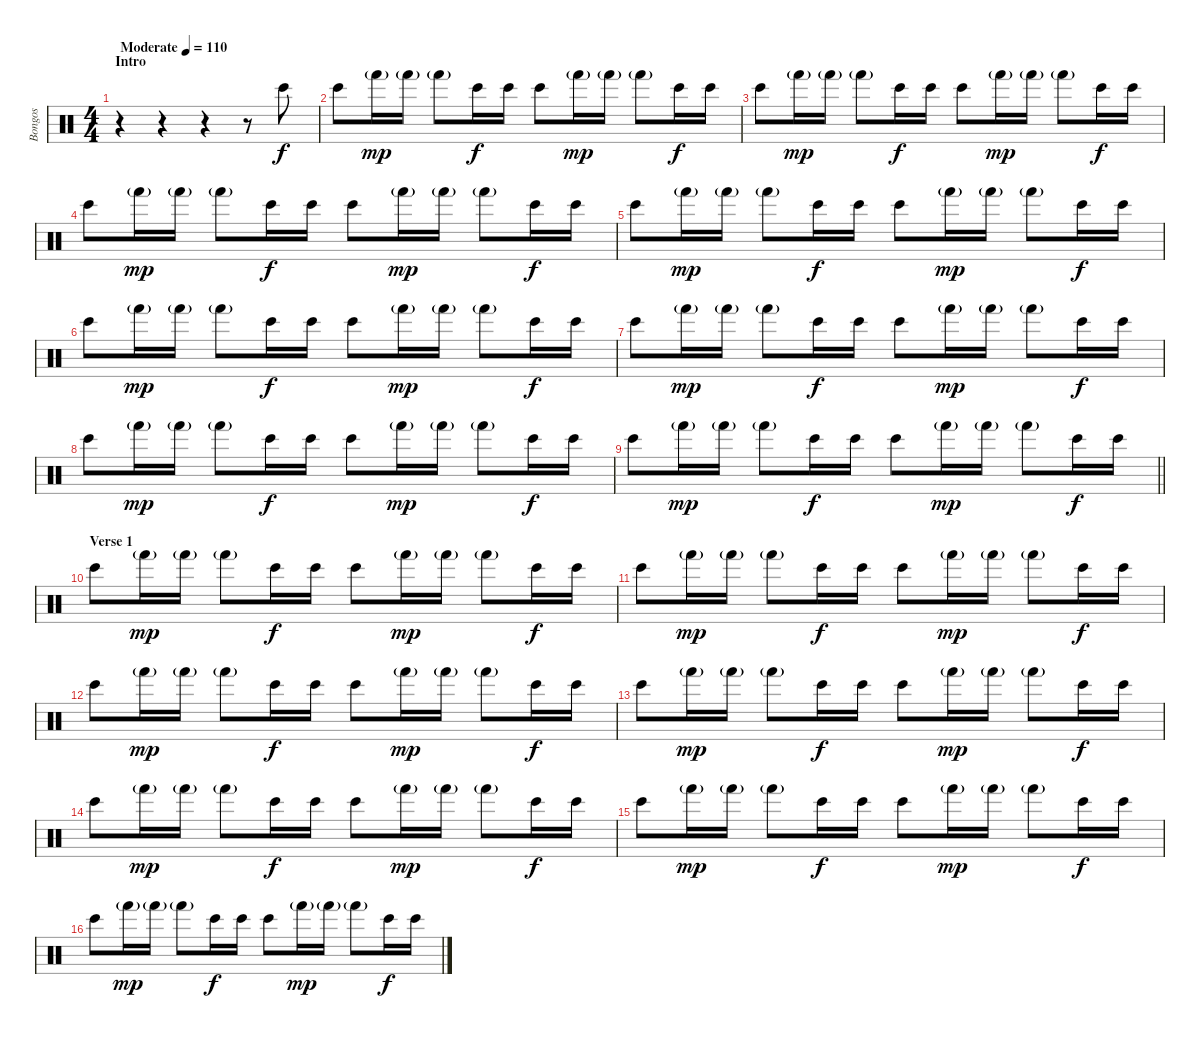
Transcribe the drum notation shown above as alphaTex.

\track ("Bongos" "Bongos") {instrument percussion}
\staff {score}
\articulation defaults
\ts (4 4)
\section ("" "Intro")
\tempo (110 "Moderate")
\clef neutral
\ks c
r.4{dy f} r.4 r.4 r.8 "Bongo High (hit)".8 |
"Bongo High (hit)".8 "Hand (hit)"{g}.16{dy mp} "Hand (hit)"{g}.16 "Hand (hit)"{g}.8 "Bongo High (hit)".16{dy f} "Bongo High (hit)".16 "Bongo High (hit)".8 "Hand (hit)"{g}.16{dy mp} "Hand (hit)"{g}.16 "Hand (hit)"{g}.8 "Bongo High (hit)".16{dy f} "Bongo High (hit)".16 |
"Bongo High (hit)".8 "Hand (hit)"{g}.16{dy mp} "Hand (hit)"{g}.16 "Hand (hit)"{g}.8 "Bongo High (hit)".16{dy f} "Bongo High (hit)".16 "Bongo High (hit)".8 "Hand (hit)"{g}.16{dy mp} "Hand (hit)"{g}.16 "Hand (hit)"{g}.8 "Bongo High (hit)".16{dy f} "Bongo High (hit)".16 |
"Bongo High (hit)".8 "Hand (hit)"{g}.16{dy mp} "Hand (hit)"{g}.16 "Hand (hit)"{g}.8 "Bongo High (hit)".16{dy f} "Bongo High (hit)".16 "Bongo High (hit)".8 "Hand (hit)"{g}.16{dy mp} "Hand (hit)"{g}.16 "Hand (hit)"{g}.8 "Bongo High (hit)".16{dy f} "Bongo High (hit)".16 |
"Bongo High (hit)".8 "Hand (hit)"{g}.16{dy mp} "Hand (hit)"{g}.16 "Hand (hit)"{g}.8 "Bongo High (hit)".16{dy f} "Bongo High (hit)".16 "Bongo High (hit)".8 "Hand (hit)"{g}.16{dy mp} "Hand (hit)"{g}.16 "Hand (hit)"{g}.8 "Bongo High (hit)".16{dy f} "Bongo High (hit)".16 |
"Bongo High (hit)".8 "Hand (hit)"{g}.16{dy mp} "Hand (hit)"{g}.16 "Hand (hit)"{g}.8 "Bongo High (hit)".16{dy f} "Bongo High (hit)".16 "Bongo High (hit)".8 "Hand (hit)"{g}.16{dy mp} "Hand (hit)"{g}.16 "Hand (hit)"{g}.8 "Bongo High (hit)".16{dy f} "Bongo High (hit)".16 |
"Bongo High (hit)".8 "Hand (hit)"{g}.16{dy mp} "Hand (hit)"{g}.16 "Hand (hit)"{g}.8 "Bongo High (hit)".16{dy f} "Bongo High (hit)".16 "Bongo High (hit)".8 "Hand (hit)"{g}.16{dy mp} "Hand (hit)"{g}.16 "Hand (hit)"{g}.8 "Bongo High (hit)".16{dy f} "Bongo High (hit)".16 |
"Bongo High (hit)".8 "Hand (hit)"{g}.16{dy mp} "Hand (hit)"{g}.16 "Hand (hit)"{g}.8 "Bongo High (hit)".16{dy f} "Bongo High (hit)".16 "Bongo High (hit)".8 "Hand (hit)"{g}.16{dy mp} "Hand (hit)"{g}.16 "Hand (hit)"{g}.8 "Bongo High (hit)".16{dy f} "Bongo High (hit)".16 |
\barLineRight lightlight "Bongo High (hit)".8 "Hand (hit)"{g}.16{dy mp} "Hand (hit)"{g}.16 "Hand (hit)"{g}.8 "Bongo High (hit)".16{dy f} "Bongo High (hit)".16 "Bongo High (hit)".8 "Hand (hit)"{g}.16{dy mp} "Hand (hit)"{g}.16 "Hand (hit)"{g}.8 "Bongo High (hit)".16{dy f} "Bongo High (hit)".16
|
\section ("" "Verse 1")
"Bongo High (hit)".8 "Hand (hit)"{g}.16{dy mp} "Hand (hit)"{g}.16 "Hand (hit)"{g}.8 "Bongo High (hit)".16{dy f} "Bongo High (hit)".16 "Bongo High (hit)".8 "Hand (hit)"{g}.16{dy mp} "Hand (hit)"{g}.16 "Hand (hit)"{g}.8 "Bongo High (hit)".16{dy f} "Bongo High (hit)".16 |
"Bongo High (hit)".8 "Hand (hit)"{g}.16{dy mp} "Hand (hit)"{g}.16 "Hand (hit)"{g}.8 "Bongo High (hit)".16{dy f} "Bongo High (hit)".16 "Bongo High (hit)".8 "Hand (hit)"{g}.16{dy mp} "Hand (hit)"{g}.16 "Hand (hit)"{g}.8 "Bongo High (hit)".16{dy f} "Bongo High (hit)".16 |
"Bongo High (hit)".8 "Hand (hit)"{g}.16{dy mp} "Hand (hit)"{g}.16 "Hand (hit)"{g}.8 "Bongo High (hit)".16{dy f} "Bongo High (hit)".16 "Bongo High (hit)".8 "Hand (hit)"{g}.16{dy mp} "Hand (hit)"{g}.16 "Hand (hit)"{g}.8 "Bongo High (hit)".16{dy f} "Bongo High (hit)".16 |
"Bongo High (hit)".8 "Hand (hit)"{g}.16{dy mp} "Hand (hit)"{g}.16 "Hand (hit)"{g}.8 "Bongo High (hit)".16{dy f} "Bongo High (hit)".16 "Bongo High (hit)".8 "Hand (hit)"{g}.16{dy mp} "Hand (hit)"{g}.16 "Hand (hit)"{g}.8 "Bongo High (hit)".16{dy f} "Bongo High (hit)".16 |
"Bongo High (hit)".8 "Hand (hit)"{g}.16{dy mp} "Hand (hit)"{g}.16 "Hand (hit)"{g}.8 "Bongo High (hit)".16{dy f} "Bongo High (hit)".16 "Bongo High (hit)".8 "Hand (hit)"{g}.16{dy mp} "Hand (hit)"{g}.16 "Hand (hit)"{g}.8 "Bongo High (hit)".16{dy f} "Bongo High (hit)".16 |
"Bongo High (hit)".8 "Hand (hit)"{g}.16{dy mp} "Hand (hit)"{g}.16 "Hand (hit)"{g}.8 "Bongo High (hit)".16{dy f} "Bongo High (hit)".16 "Bongo High (hit)".8 "Hand (hit)"{g}.16{dy mp} "Hand (hit)"{g}.16 "Hand (hit)"{g}.8 "Bongo High (hit)".16{dy f} "Bongo High (hit)".16 |
"Bongo High (hit)".8 "Hand (hit)"{g}.16{dy mp} "Hand (hit)"{g}.16 "Hand (hit)"{g}.8 "Bongo High (hit)".16{dy f} "Bongo High (hit)".16 "Bongo High (hit)".8 "Hand (hit)"{g}.16{dy mp} "Hand (hit)"{g}.16 "Hand (hit)"{g}.8 "Bongo High (hit)".16{dy f} "Bongo High (hit)".16
